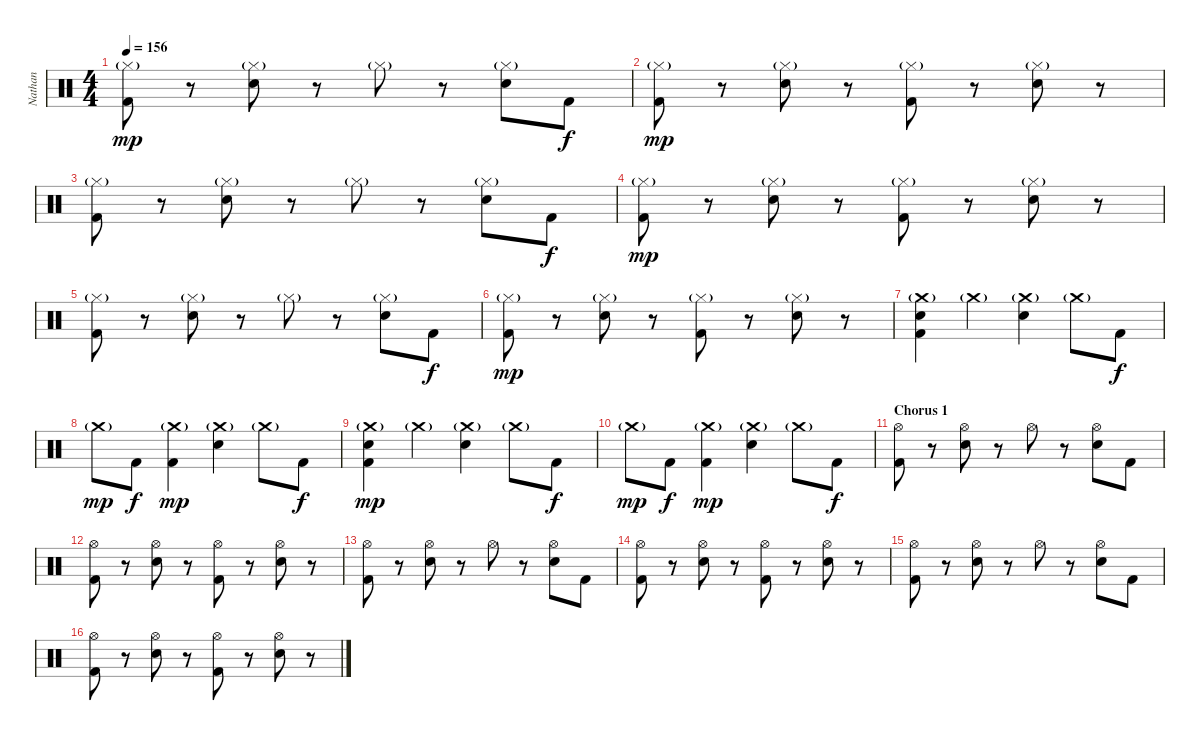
\track ("Nathan" "Nathan") {instrument percussion}
\staff {score}
\articulation defaults
\ts (4 4)
\tempo 156
\clef neutral
\ks c
("Hi-Hat (closed)"{g} "Kick (hit) 2").8{dy mp} r.8 ("Hi-Hat (closed)"{g} "Electric Snare (hit)").8 r.8 "Hi-Hat (closed)"{g}.8 r.8 ("Hi-Hat (closed)"{g} "Electric Snare (hit)").8 "Kick (hit) 2".8{dy f} |
("Hi-Hat (closed)"{g} "Kick (hit) 2").8{dy mp} r.8 ("Hi-Hat (closed)"{g} "Electric Snare (hit)").8 r.8 ("Hi-Hat (closed)"{g} "Kick (hit) 2").8 r.8 ("Hi-Hat (closed)"{g} "Electric Snare (hit)").8 r.8 |
("Hi-Hat (closed)"{g} "Kick (hit) 2").8 r.8 ("Hi-Hat (closed)"{g} "Electric Snare (hit)").8 r.8 "Hi-Hat (closed)"{g}.8 r.8 ("Hi-Hat (closed)"{g} "Electric Snare (hit)").8 "Kick (hit) 2".8{dy f} |
("Hi-Hat (closed)"{g} "Kick (hit) 2").8{dy mp} r.8 ("Hi-Hat (closed)"{g} "Electric Snare (hit)").8 r.8 ("Hi-Hat (closed)"{g} "Kick (hit) 2").8 r.8 ("Hi-Hat (closed)"{g} "Electric Snare (hit)").8 r.8 |
("Hi-Hat (closed)"{g} "Kick (hit) 2").8 r.8 ("Hi-Hat (closed)"{g} "Electric Snare (hit)").8 r.8 "Hi-Hat (closed)"{g}.8 r.8 ("Hi-Hat (closed)"{g} "Electric Snare (hit)").8 "Kick (hit) 2".8{dy f} |
("Hi-Hat (closed)"{g} "Kick (hit) 2").8{dy mp} r.8 ("Hi-Hat (closed)"{g} "Electric Snare (hit)").8 r.8 ("Hi-Hat (closed)"{g} "Kick (hit) 2").8 r.8 ("Hi-Hat (closed)"{g} "Electric Snare (hit)").8 r.8 |
("Crash medium (hit)"{g} "Electric Snare (hit)" "Kick (hit) 2").4 "Crash medium (hit)"{g}.4 ("Crash medium (hit)"{g} "Electric Snare (hit)").4 "Crash medium (hit)"{g}.8 "Kick (hit) 2".8{dy f} |
"Crash medium (hit)"{g}.8{dy mp} "Kick (hit) 2".8{dy f} ("Crash medium (hit)"{g} "Kick (hit) 2").4{dy mp} ("Crash medium (hit)"{g} "Electric Snare (hit)").4 "Crash medium (hit)"{g}.8 "Kick (hit) 2".8{dy f} |
("Crash medium (hit)"{g} "Electric Snare (hit)" "Kick (hit) 2").4{dy mp} "Crash medium (hit)"{g}.4 ("Crash medium (hit)"{g} "Electric Snare (hit)").4 "Crash medium (hit)"{g}.8 "Kick (hit) 2".8{dy f} |
"Crash medium (hit)"{g}.8{dy mp} "Kick (hit) 2".8{dy f} ("Crash medium (hit)"{g} "Kick (hit) 2").4{dy mp} ("Crash medium (hit)"{g} "Electric Snare (hit)").4 "Crash medium (hit)"{g}.8 "Kick (hit) 2".8{dy f} |
\section ("" "Chorus 1")
("Hi-Hat (open)" "Kick (hit) 2").8 r.8 ("Hi-Hat (open)" "Electric Snare (hit)").8 r.8 "Hi-Hat (open)".8 r.8 ("Hi-Hat (open)" "Electric Snare (hit)").8 "Kick (hit) 2".8 |
("Hi-Hat (open)" "Kick (hit) 2").8 r.8 ("Hi-Hat (open)" "Electric Snare (hit)").8 r.8 ("Hi-Hat (open)" "Kick (hit) 2").8 r.8 ("Hi-Hat (open)" "Electric Snare (hit)").8 r.8 |
("Hi-Hat (open)" "Kick (hit) 2").8 r.8 ("Hi-Hat (open)" "Electric Snare (hit)").8 r.8 "Hi-Hat (open)".8 r.8 ("Hi-Hat (open)" "Electric Snare (hit)").8 "Kick (hit) 2".8 |
("Hi-Hat (open)" "Kick (hit) 2").8 r.8 ("Hi-Hat (open)" "Electric Snare (hit)").8 r.8 ("Hi-Hat (open)" "Kick (hit) 2").8 r.8 ("Hi-Hat (open)" "Electric Snare (hit)").8 r.8 |
("Hi-Hat (open)" "Kick (hit) 2").8 r.8 ("Hi-Hat (open)" "Electric Snare (hit)").8 r.8 "Hi-Hat (open)".8 r.8 ("Hi-Hat (open)" "Electric Snare (hit)").8 "Kick (hit) 2".8 |
("Hi-Hat (open)" "Kick (hit) 2").8 r.8 ("Hi-Hat (open)" "Electric Snare (hit)").8 r.8 ("Hi-Hat (open)" "Kick (hit) 2").8 r.8 ("Hi-Hat (open)" "Electric Snare (hit)").8 r.8
